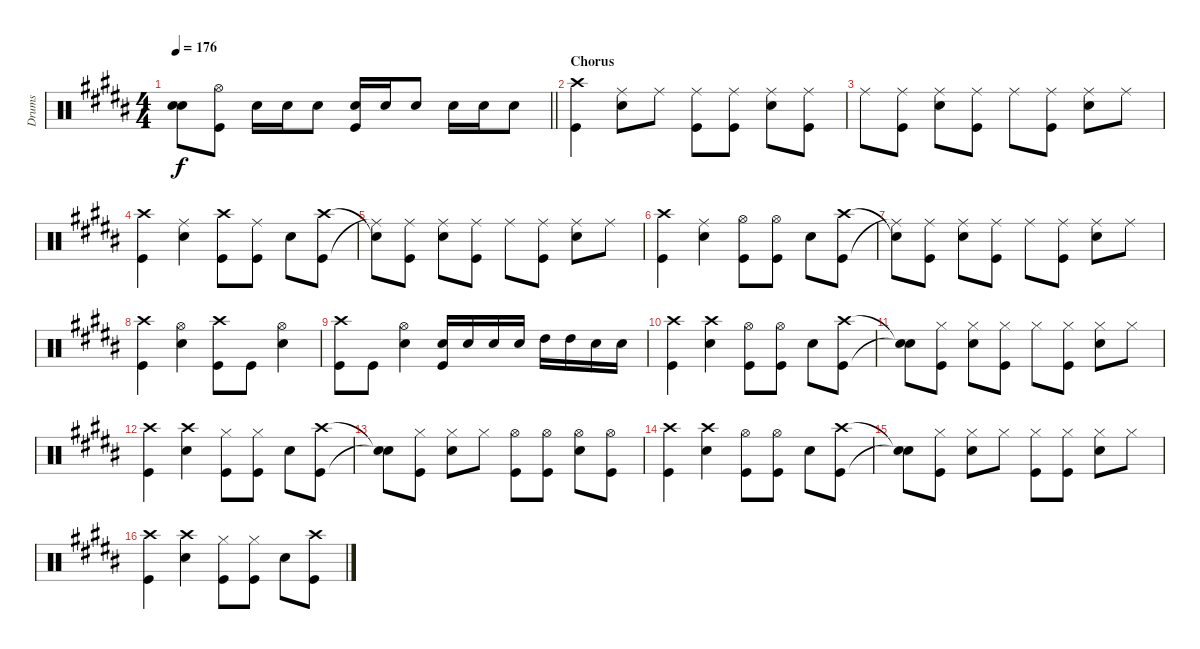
\track ("Drums" "Drums") {instrument percussion}
\staff {score}
\articulation defaults
\ts (4 4)
\tempo 176
\clef neutral
\barLineRight lightlight
\ks b
("Snare (hit)"{t} "Snare (hit)"{t}).8{dy f} ("Kick (hit)" "Hi-Hat (open)").8 "Snare (hit) 2".16 "Snare (hit) 2".16 "Snare (hit) 2".8 ("Kick (hit)" "Snare (hit) 2").16 "Snare (hit) 2".16 "Snare (hit) 2".8 "Snare (hit) 2".16 "Snare (hit) 2".16 "Snare (hit) 2".8 |
\section ("" "Chorus")
("Kick (hit)" "Crash high (hit)").4 ("Snare (hit) 2" "Ride (middle)").8 "Ride (middle)".8 ("Ride (middle)" "Kick (hit)").8 ("Ride (middle)" "Kick (hit)").8 ("Ride (middle)" "Snare (hit) 2").8 ("Ride (middle)" "Kick (hit)").8 |
"Ride (middle)".8 ("Ride (middle)" "Kick (hit)").8 ("Ride (middle)" "Snare (hit) 2").8 ("Ride (middle)" "Kick (hit)").8 "Ride (middle)".8 ("Ride (middle)" "Kick (hit)").8 ("Ride (middle)" "Snare (hit) 2").8 "Ride (middle)".8 |
("Kick (hit)" "Crash high (hit)").4 ("Snare (hit) 2" "Ride (middle)").4 ("Crash high (hit)" "Kick (hit)").8 ("Ride (middle)" "Kick (hit)").8 "Snare (hit) 2".8 ("Kick (hit)" "Crash high (hit)").8 |
("Ride (middle)"{t} "Snare (hit)"{t}).8 ("Ride (middle)" "Kick (hit)").8 ("Snare (hit) 2" "Ride (middle)").8 ("Ride (middle)" "Kick (hit)").8 "Ride (middle)".8 ("Ride (middle)" "Kick (hit)").8 ("Ride (middle)" "Snare (hit) 2").8 "Ride (middle)".8 |
("Kick (hit)" "Crash high (hit)").4 ("Snare (hit) 2" "Ride (middle)").4 ("Kick (hit)" "Hi-Hat (open)").8 ("Kick (hit)" "Hi-Hat (open)").8 "Snare (hit) 2".8 ("Kick (hit)" "Crash high (hit)").8 |
("Ride (middle)"{t} "Snare (hit)"{t}).8 ("Ride (middle)" "Kick (hit)").8 ("Ride (middle)" "Snare (hit) 2").8 ("Ride (middle)" "Kick (hit)").8 "Ride (middle)".8 ("Ride (middle)" "Kick (hit)").8 ("Ride (middle)" "Snare (hit) 2").8 "Ride (middle)".8 |
("Kick (hit)" "Crash high (hit)").4 ("Snare (hit) 2" "Hi-Hat (open)").4 ("Kick (hit)" "Crash high (hit)").8 "Kick (hit)".8 ("Snare (hit) 2" "Hi-Hat (open)").4 |
("Kick (hit)" "Crash high (hit)").8 "Kick (hit)".8 ("Snare (hit) 2" "Hi-Hat (open)").4 ("Kick (hit)" "Snare (hit) 2").16 "Snare (hit) 2".16 "Snare (hit) 2".16 "Snare (hit) 2".16 "High Tom (hit)".16 "High Tom (hit)".16 "Snare (hit) 2".16 "Snare (hit) 2".16 |
("Kick (hit)" "Crash high (hit)").4 ("Snare (hit) 2" "Crash high (hit)").4 ("Kick (hit)" "Hi-Hat (open)").8 ("Kick (hit)" "Hi-Hat (open)").8 "Snare (hit) 2".8 ("Kick (hit)" "Crash high (hit)").8 |
("Snare (hit)"{t} "Snare (hit)"{t}).8 ("Hi-Hat (closed)" "Kick (hit)").8 ("Hi-Hat (closed)" "Snare (hit) 2").8 ("Hi-Hat (closed)" "Kick (hit)").8 "Hi-Hat (closed)".8 ("Hi-Hat (closed)" "Kick (hit)").8 ("Hi-Hat (closed)" "Snare (hit) 2").8 "Hi-Hat (closed)".8 |
("Kick (hit)" "Crash high (hit)").4 ("Snare (hit) 2" "Crash high (hit)").4 ("Kick (hit)" "Hi-Hat (closed)").8 ("Kick (hit)" "Hi-Hat (closed)").8 "Snare (hit) 2".8 ("Kick (hit)" "Crash high (hit)").8 |
("Snare (hit)"{t} "Snare (hit)"{t}).8 ("Hi-Hat (closed)" "Kick (hit)").8 ("Hi-Hat (closed)" "Snare (hit) 2").8 "Hi-Hat (closed)".8 ("Hi-Hat (open)" "Kick (hit)").8 ("Hi-Hat (open)" "Kick (hit)").8 ("Hi-Hat (open)" "Snare (hit) 2").8 ("Hi-Hat (open)" "Kick (hit)").8 |
("Kick (hit)" "Crash high (hit)").4 ("Snare (hit) 2" "Crash high (hit)").4 ("Kick (hit)" "Hi-Hat (open)").8 ("Kick (hit)" "Hi-Hat (open)").8 "Snare (hit) 2".8 ("Kick (hit)" "Crash high (hit)").8 |
("Snare (hit)"{t} "Snare (hit)"{t}).8 ("Hi-Hat (closed)" "Kick (hit)").8 ("Hi-Hat (closed)" "Snare (hit) 2").8 "Hi-Hat (closed)".8 ("Hi-Hat (closed)" "Kick (hit)").8 ("Hi-Hat (closed)" "Kick (hit)").8 ("Hi-Hat (closed)" "Snare (hit) 2").8 "Hi-Hat (closed)".8 |
("Kick (hit)" "Crash high (hit)").4 ("Snare (hit) 2" "Crash high (hit)").4 ("Kick (hit)" "Hi-Hat (closed)").8 ("Kick (hit)" "Hi-Hat (closed)").8 "Snare (hit) 2".8 ("Kick (hit)" "Crash high (hit)").8
